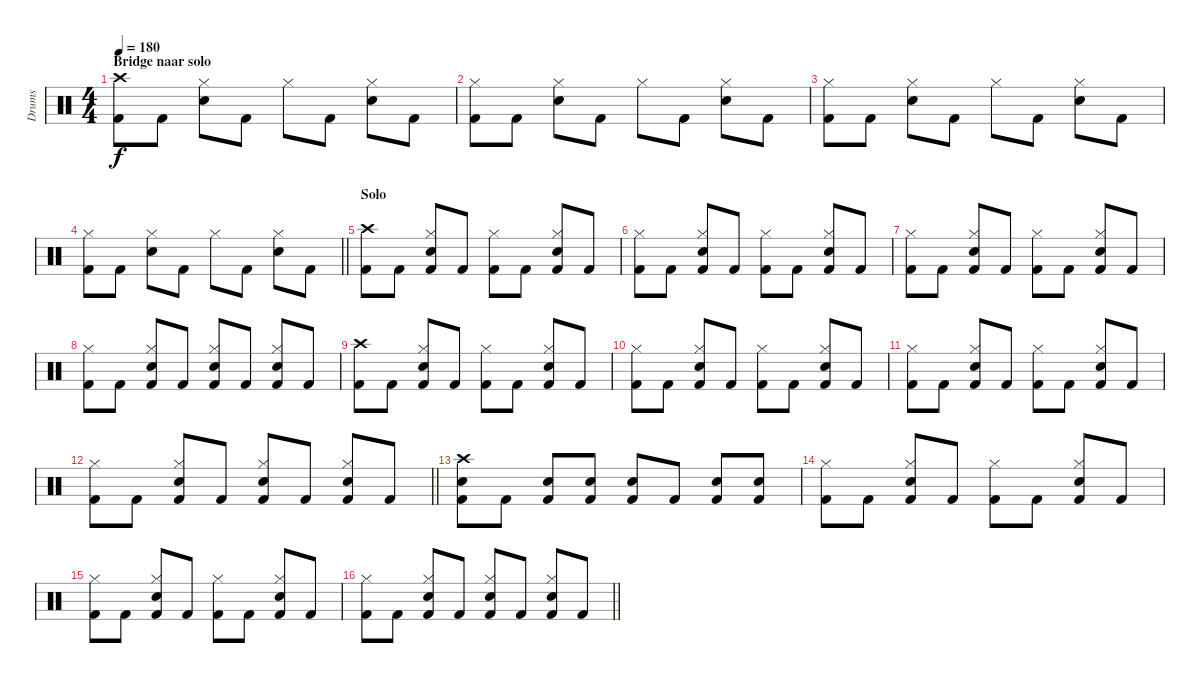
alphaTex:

\track ("Drums" "Drums") {instrument percussion}
\staff {score}
\articulation defaults
\ts (4 4)
\section ("" "Bridge naar solo")
\tempo 180
\clef neutral
\ks c
("Crash high (hit)" "Kick (hit) 2").8{dy f} "Kick (hit) 2".8 ("Hi-Hat (closed)" "Snare (hit) 2").8 "Kick (hit) 2".8 "Hi-Hat (closed)".8 "Kick (hit) 2".8 ("Hi-Hat (closed)" "Snare (hit) 2").8 "Kick (hit) 2".8 |
("Hi-Hat (closed)" "Kick (hit) 2").8 "Kick (hit) 2".8 ("Hi-Hat (closed)" "Snare (hit) 2").8 "Kick (hit) 2".8 "Hi-Hat (closed)".8 "Kick (hit) 2".8 ("Hi-Hat (closed)" "Snare (hit) 2").8 "Kick (hit) 2".8 |
("Hi-Hat (closed)" "Kick (hit) 2").8 "Kick (hit) 2".8 ("Hi-Hat (closed)" "Snare (hit) 2").8 "Kick (hit) 2".8 "Hi-Hat (closed)".8 "Kick (hit) 2".8 ("Hi-Hat (closed)" "Snare (hit) 2").8 "Kick (hit) 2".8 |
\barLineRight lightlight
("Hi-Hat (closed)" "Kick (hit) 2").8 "Kick (hit) 2".8 ("Hi-Hat (closed)" "Snare (hit) 2").8 "Kick (hit) 2".8 "Hi-Hat (closed)".8 "Kick (hit) 2".8 ("Hi-Hat (closed)" "Snare (hit) 2").8 "Kick (hit) 2".8 |
\section ("" "Solo")
("Crash high (hit)" "Kick (hit) 2").8 "Kick (hit) 2".8 ("Hi-Hat (closed)" "Snare (hit) 2" "Kick (hit) 2").8 "Kick (hit) 2".8 ("Hi-Hat (closed)" "Kick (hit) 2").8 "Kick (hit) 2".8 ("Hi-Hat (closed)" "Snare (hit) 2" "Kick (hit) 2").8 "Kick (hit) 2".8 |
("Hi-Hat (closed)" "Kick (hit) 2").8 "Kick (hit) 2".8 ("Hi-Hat (closed)" "Snare (hit) 2" "Kick (hit) 2").8 "Kick (hit) 2".8 ("Hi-Hat (closed)" "Kick (hit) 2").8 "Kick (hit) 2".8 ("Hi-Hat (closed)" "Snare (hit) 2" "Kick (hit) 2").8 "Kick (hit) 2".8 |
("Hi-Hat (closed)" "Kick (hit) 2").8 "Kick (hit) 2".8 ("Hi-Hat (closed)" "Snare (hit) 2" "Kick (hit) 2").8 "Kick (hit) 2".8 ("Hi-Hat (closed)" "Kick (hit) 2").8 "Kick (hit) 2".8 ("Hi-Hat (closed)" "Snare (hit) 2" "Kick (hit) 2").8 "Kick (hit) 2".8 |
("Hi-Hat (closed)" "Kick (hit) 2").8 "Kick (hit) 2".8 ("Hi-Hat (closed)" "Snare (hit) 2" "Kick (hit) 2").8 "Kick (hit) 2".8 ("Hi-Hat (closed)" "Snare (hit) 2" "Kick (hit) 2").8 "Kick (hit) 2".8 ("Hi-Hat (closed)" "Snare (hit) 2" "Kick (hit) 2").8 "Kick (hit) 2".8 |
("Crash high (hit)" "Kick (hit) 2").8 "Kick (hit) 2".8 ("Hi-Hat (closed)" "Snare (hit) 2" "Kick (hit) 2").8 "Kick (hit) 2".8 ("Hi-Hat (closed)" "Kick (hit) 2").8 "Kick (hit) 2".8 ("Hi-Hat (closed)" "Snare (hit) 2" "Kick (hit) 2").8 "Kick (hit) 2".8 |
("Hi-Hat (closed)" "Kick (hit) 2").8 "Kick (hit) 2".8 ("Hi-Hat (closed)" "Snare (hit) 2" "Kick (hit) 2").8 "Kick (hit) 2".8 ("Hi-Hat (closed)" "Kick (hit) 2").8 "Kick (hit) 2".8 ("Hi-Hat (closed)" "Snare (hit) 2" "Kick (hit) 2").8 "Kick (hit) 2".8 |
("Hi-Hat (closed)" "Kick (hit) 2").8 "Kick (hit) 2".8 ("Hi-Hat (closed)" "Snare (hit) 2" "Kick (hit) 2").8 "Kick (hit) 2".8 ("Hi-Hat (closed)" "Kick (hit) 2").8 "Kick (hit) 2".8 ("Hi-Hat (closed)" "Snare (hit) 2" "Kick (hit) 2").8 "Kick (hit) 2".8 |
\barLineRight lightlight
("Hi-Hat (closed)" "Kick (hit) 2").8 "Kick (hit) 2".8 ("Hi-Hat (closed)" "Snare (hit) 2" "Kick (hit) 2").8 "Kick (hit) 2".8 ("Hi-Hat (closed)" "Snare (hit) 2" "Kick (hit) 2").8 "Kick (hit) 2".8 ("Hi-Hat (closed)" "Snare (hit) 2" "Kick (hit) 2").8 "Kick (hit) 2".8 |
("Crash high (hit)" "Snare (hit) 2" "Kick (hit) 2").8 "Kick (hit) 2".8 ("Snare (hit) 2" "Kick (hit) 2").8 ("Snare (hit) 2" "Kick (hit) 2").8 ("Snare (hit) 2" "Kick (hit) 2").8 "Kick (hit) 2".8 ("Snare (hit) 2" "Kick (hit) 2").8 ("Snare (hit) 2" "Kick (hit) 2").8 |
("Hi-Hat (closed)" "Kick (hit) 2").8 "Kick (hit) 2".8 ("Hi-Hat (closed)" "Snare (hit) 2" "Kick (hit) 2").8 "Kick (hit) 2".8 ("Hi-Hat (closed)" "Kick (hit) 2").8 "Kick (hit) 2".8 ("Hi-Hat (closed)" "Snare (hit) 2" "Kick (hit) 2").8 "Kick (hit) 2".8 |
("Hi-Hat (closed)" "Kick (hit) 2").8 "Kick (hit) 2".8 ("Hi-Hat (closed)" "Snare (hit) 2" "Kick (hit) 2").8 "Kick (hit) 2".8 ("Hi-Hat (closed)" "Kick (hit) 2").8 "Kick (hit) 2".8 ("Hi-Hat (closed)" "Snare (hit) 2" "Kick (hit) 2").8 "Kick (hit) 2".8 |
\barLineRight lightlight
("Hi-Hat (closed)" "Kick (hit) 2").8 "Kick (hit) 2".8 ("Hi-Hat (closed)" "Snare (hit) 2" "Kick (hit) 2").8 "Kick (hit) 2".8 ("Hi-Hat (closed)" "Snare (hit) 2" "Kick (hit) 2").8 "Kick (hit) 2".8 ("Hi-Hat (closed)" "Snare (hit) 2" "Kick (hit) 2").8 "Kick (hit) 2".8
